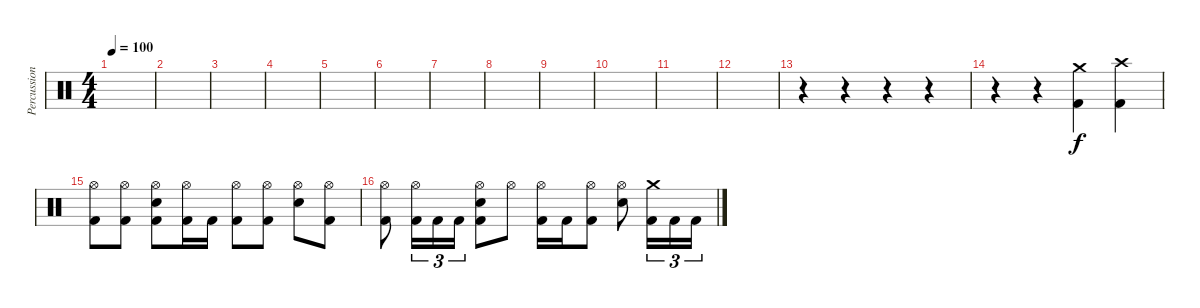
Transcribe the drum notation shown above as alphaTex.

\track ("Percussion" "Percussion") {instrument percussion}
\staff {score}
\articulation defaults
\ts (4 4)
\tempo 100
\clef neutral
\ks c
|
|
|
|
|
|
|
|
|
|
|
|
r.4 r.4 r.4 r.4 |
r.4 r.4 ("Crash medium (hit)" "Kick (hit) 2").4 ("Crash high (hit)" "Kick (hit) 2").4 |
("Hi-Hat (open)" "Kick (hit) 2").8 ("Hi-Hat (open)" "Kick (hit) 2").8 ("Hi-Hat (open)" "Electric Snare (hit)" "Kick (hit) 2").8 ("Hi-Hat (open)" "Kick (hit) 2").16 "Kick (hit) 2".16 ("Hi-Hat (open)" "Kick (hit) 2").8 ("Hi-Hat (open)" "Kick (hit) 2").8 ("Hi-Hat (open)" "Electric Snare (hit)").8 ("Hi-Hat (open)" "Kick (hit) 2").8 |
("Hi-Hat (open)" "Kick (hit) 2").8 ("Hi-Hat (open)" "Kick (hit) 2").16{tu (3 2)} "Kick (hit) 2".16{tu (3 2)} "Kick (hit) 2".16{tu (3 2)} ("Hi-Hat (open)" "Electric Snare (hit)" "Kick (hit) 2").8 "Hi-Hat (open)".8 ("Hi-Hat (open)" "Kick (hit) 2").16 "Kick (hit) 2".16 ("Hi-Hat (open)" "Kick (hit) 2").8 ("Hi-Hat (open)" "Electric Snare (hit)").8 ("Crash medium (hit)" "Kick (hit) 2").16{tu (3 2)} "Kick (hit) 2".16{tu (3 2)} "Kick (hit) 2".16{tu (3 2)}
